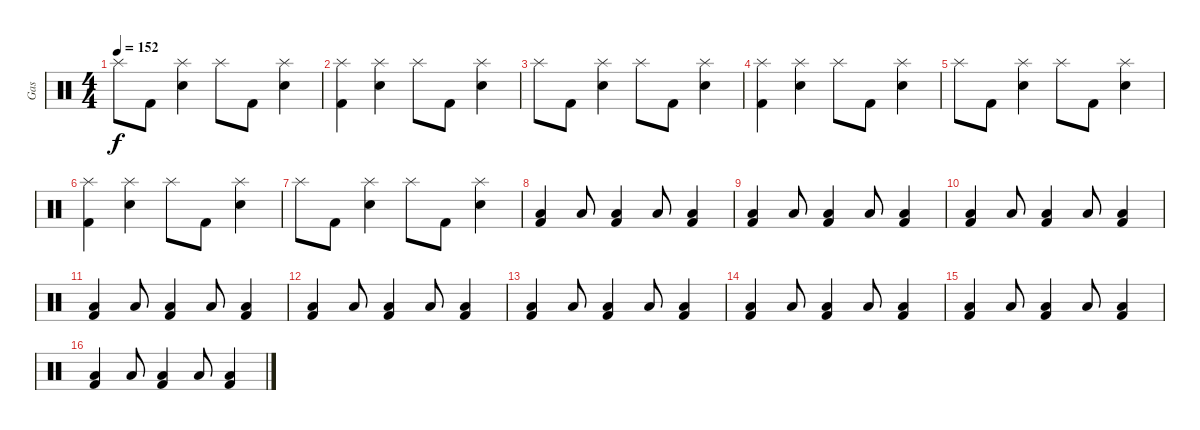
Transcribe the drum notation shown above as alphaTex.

\track ("Gas" "Gas") {instrument percussion}
\staff {score}
\articulation defaults
\ts (4 4)
\tempo 152
\clef neutral
\ks c "Splash (hit)".8{dy f} "Kick (hit) 2".8
("Splash (hit)" "Electric Snare (hit)").4 "Splash (hit)".8 "Kick (hit) 2".8 ("Splash (hit)" "Electric Snare (hit)").4 |
("Splash (hit)" "Kick (hit) 2").4 ("Splash (hit)" "Electric Snare (hit)").4 "Splash (hit)".8 "Kick (hit) 2".8 ("Splash (hit)" "Electric Snare (hit)").4 |
"Splash (hit)".8 "Kick (hit) 2".8 ("Splash (hit)" "Electric Snare (hit)").4 "Splash (hit)".8 "Kick (hit) 2".8 ("Splash (hit)" "Electric Snare (hit)").4 |
("Splash (hit)" "Kick (hit) 2").4 ("Splash (hit)" "Electric Snare (hit)").4 "Splash (hit)".8 "Kick (hit) 2".8 ("Splash (hit)" "Electric Snare (hit)").4 |
"Splash (hit)".8 "Kick (hit) 2".8 ("Splash (hit)" "Electric Snare (hit)").4 "Splash (hit)".8 "Kick (hit) 2".8 ("Splash (hit)" "Electric Snare (hit)").4 |
("Splash (hit)" "Kick (hit) 2").4 ("Splash (hit)" "Electric Snare (hit)").4 "Splash (hit)".8 "Kick (hit) 2".8 ("Splash (hit)" "Electric Snare (hit)").4 |
"Splash (hit)".8 "Kick (hit) 2".8 ("Splash (hit)" "Electric Snare (hit)").4 "Splash (hit)".8 "Kick (hit) 2".8 ("Splash (hit)" "Electric Snare (hit)").4 |
("Low Tom (hit)" "Kick (hit) 2").4 "Low Tom (hit)".8 ("Low Tom (hit)" "Kick (hit) 2").4 "Low Tom (hit)".8 ("Low Tom (hit)" "Kick (hit) 2").4 |
("Low Tom (hit)" "Kick (hit) 2").4 "Low Tom (hit)".8 ("Low Tom (hit)" "Kick (hit) 2").4 "Low Tom (hit)".8 ("Low Tom (hit)" "Kick (hit) 2").4 |
("Low Tom (hit)" "Kick (hit) 2").4 "Low Tom (hit)".8 ("Low Tom (hit)" "Kick (hit) 2").4 "Low Tom (hit)".8 ("Low Tom (hit)" "Kick (hit) 2").4 |
("Low Tom (hit)" "Kick (hit) 2").4 "Low Tom (hit)".8 ("Low Tom (hit)" "Kick (hit) 2").4 "Low Tom (hit)".8 ("Low Tom (hit)" "Kick (hit) 2").4 |
("Low Tom (hit)" "Kick (hit) 2").4 "Low Tom (hit)".8 ("Low Tom (hit)" "Kick (hit) 2").4 "Low Tom (hit)".8 ("Low Tom (hit)" "Kick (hit) 2").4 |
("Low Tom (hit)" "Kick (hit) 2").4 "Low Tom (hit)".8 ("Low Tom (hit)" "Kick (hit) 2").4 "Low Tom (hit)".8 ("Low Tom (hit)" "Kick (hit) 2").4 |
("Low Tom (hit)" "Kick (hit) 2").4 "Low Tom (hit)".8 ("Low Tom (hit)" "Kick (hit) 2").4 "Low Tom (hit)".8 ("Low Tom (hit)" "Kick (hit) 2").4 |
("Low Tom (hit)" "Kick (hit) 2").4 "Low Tom (hit)".8 ("Low Tom (hit)" "Kick (hit) 2").4 "Low Tom (hit)".8 ("Low Tom (hit)" "Kick (hit) 2").4 |
("Low Tom (hit)" "Kick (hit) 2").4 "Low Tom (hit)".8 ("Low Tom (hit)" "Kick (hit) 2").4 "Low Tom (hit)".8 ("Low Tom (hit)" "Kick (hit) 2").4
